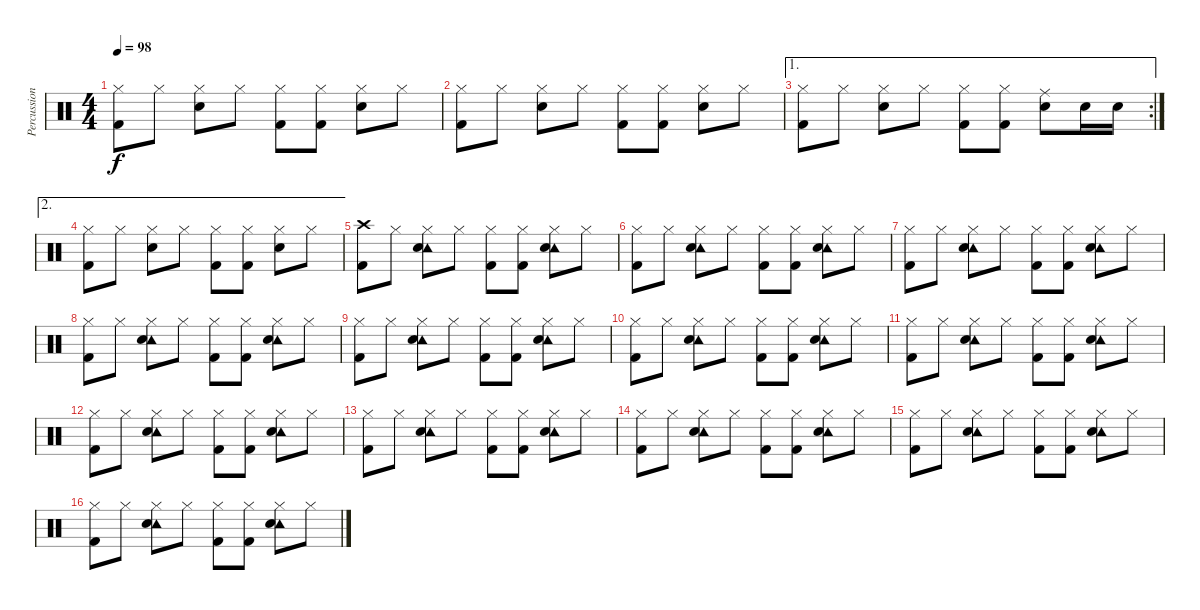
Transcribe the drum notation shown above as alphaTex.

\track ("Percussion" "Percussion") {instrument percussion}
\staff {score}
\articulation defaults
\ts (4 4)
\tempo 98
\clef neutral
\ks c
("Hi-Hat (closed)" "Kick (hit) 2").8{dy f} "Hi-Hat (closed)".8 ("Hi-Hat (closed)" "Snare (hit) 2").8 "Hi-Hat (closed)".8 ("Hi-Hat (closed)" "Kick (hit) 2").8 ("Hi-Hat (closed)" "Kick (hit) 2").8 ("Hi-Hat (closed)" "Snare (hit) 2").8 "Hi-Hat (closed)".8 |
("Hi-Hat (closed)" "Kick (hit) 2").8 "Hi-Hat (closed)".8 ("Hi-Hat (closed)" "Snare (hit) 2").8 "Hi-Hat (closed)".8 ("Hi-Hat (closed)" "Kick (hit) 2").8 ("Hi-Hat (closed)" "Kick (hit) 2").8 ("Hi-Hat (closed)" "Snare (hit) 2").8 "Hi-Hat (closed)".8 |
\ae 1
\rc 2
("Hi-Hat (closed)" "Kick (hit) 2").8 "Hi-Hat (closed)".8 ("Hi-Hat (closed)" "Snare (hit) 2").8 "Hi-Hat (closed)".8 ("Hi-Hat (closed)" "Kick (hit) 2").8 ("Hi-Hat (closed)" "Kick (hit) 2").8 ("Ride (middle)" "Snare (hit) 2").8 "Snare (hit) 2".16 "Snare (hit) 2".16 |
\ae 2
("Hi-Hat (closed)" "Kick (hit) 2").8 "Hi-Hat (closed)".8 ("Hi-Hat (closed)" "Snare (hit) 2").8 "Hi-Hat (closed)".8 ("Hi-Hat (closed)" "Kick (hit) 2").8 ("Hi-Hat (closed)" "Kick (hit) 2").8 ("Hi-Hat (closed)" "Snare (hit) 2").8 "Hi-Hat (closed)".8 |
("Crash high (hit)" "Kick (hit) 2").8 "Hi-Hat (closed)".8 ("Tambourine (hit)" "Hi-Hat (closed)" "Snare (hit) 2").8 "Hi-Hat (closed)".8 ("Hi-Hat (closed)" "Kick (hit) 2").8 ("Hi-Hat (closed)" "Kick (hit) 2").8 ("Tambourine (hit)" "Hi-Hat (closed)" "Snare (hit) 2").8 "Hi-Hat (closed)".8 |
("Hi-Hat (closed)" "Kick (hit) 2").8 "Hi-Hat (closed)".8 ("Tambourine (hit)" "Hi-Hat (closed)" "Snare (hit) 2").8 "Hi-Hat (closed)".8 ("Hi-Hat (closed)" "Kick (hit) 2").8 ("Hi-Hat (closed)" "Kick (hit) 2").8 ("Tambourine (hit)" "Hi-Hat (closed)" "Snare (hit) 2").8 "Hi-Hat (closed)".8 |
("Hi-Hat (closed)" "Kick (hit) 2").8 "Hi-Hat (closed)".8 ("Tambourine (hit)" "Hi-Hat (closed)" "Snare (hit) 2").8 "Hi-Hat (closed)".8 ("Hi-Hat (closed)" "Kick (hit) 2").8 ("Hi-Hat (closed)" "Kick (hit) 2").8 ("Tambourine (hit)" "Hi-Hat (closed)" "Snare (hit) 2").8 "Hi-Hat (closed)".8 |
("Hi-Hat (closed)" "Kick (hit) 2").8 "Hi-Hat (closed)".8 ("Tambourine (hit)" "Hi-Hat (closed)" "Snare (hit) 2").8 "Hi-Hat (closed)".8 ("Hi-Hat (closed)" "Kick (hit) 2").8 ("Hi-Hat (closed)" "Kick (hit) 2").8 ("Tambourine (hit)" "Hi-Hat (closed)" "Snare (hit) 2").8 "Hi-Hat (closed)".8 |
("Hi-Hat (closed)" "Kick (hit) 2").8 "Hi-Hat (closed)".8 ("Tambourine (hit)" "Hi-Hat (closed)" "Snare (hit) 2").8 "Hi-Hat (closed)".8 ("Hi-Hat (closed)" "Kick (hit) 2").8 ("Hi-Hat (closed)" "Kick (hit) 2").8 ("Tambourine (hit)" "Hi-Hat (closed)" "Snare (hit) 2").8 "Hi-Hat (closed)".8 |
("Hi-Hat (closed)" "Kick (hit) 2").8 "Hi-Hat (closed)".8 ("Tambourine (hit)" "Hi-Hat (closed)" "Snare (hit) 2").8 "Hi-Hat (closed)".8 ("Hi-Hat (closed)" "Kick (hit) 2").8 ("Hi-Hat (closed)" "Kick (hit) 2").8 ("Tambourine (hit)" "Hi-Hat (closed)" "Snare (hit) 2").8 "Hi-Hat (closed)".8 |
("Hi-Hat (closed)" "Kick (hit) 2").8 "Hi-Hat (closed)".8 ("Tambourine (hit)" "Hi-Hat (closed)" "Snare (hit) 2").8 "Hi-Hat (closed)".8 ("Hi-Hat (closed)" "Kick (hit) 2").8 ("Hi-Hat (closed)" "Kick (hit) 2").8 ("Tambourine (hit)" "Hi-Hat (closed)" "Snare (hit) 2").8 "Hi-Hat (closed)".8 |
("Hi-Hat (closed)" "Kick (hit) 2").8 "Hi-Hat (closed)".8 ("Tambourine (hit)" "Hi-Hat (closed)" "Snare (hit) 2").8 "Hi-Hat (closed)".8 ("Hi-Hat (closed)" "Kick (hit) 2").8 ("Hi-Hat (closed)" "Kick (hit) 2").8 ("Tambourine (hit)" "Hi-Hat (closed)" "Snare (hit) 2").8 "Hi-Hat (closed)".8 |
("Hi-Hat (closed)" "Kick (hit) 2").8 "Hi-Hat (closed)".8 ("Tambourine (hit)" "Hi-Hat (closed)" "Snare (hit) 2").8 "Hi-Hat (closed)".8 ("Hi-Hat (closed)" "Kick (hit) 2").8 ("Hi-Hat (closed)" "Kick (hit) 2").8 ("Tambourine (hit)" "Hi-Hat (closed)" "Snare (hit) 2").8 "Hi-Hat (closed)".8 |
("Hi-Hat (closed)" "Kick (hit) 2").8 "Hi-Hat (closed)".8 ("Tambourine (hit)" "Hi-Hat (closed)" "Snare (hit) 2").8 "Hi-Hat (closed)".8 ("Hi-Hat (closed)" "Kick (hit) 2").8 ("Hi-Hat (closed)" "Kick (hit) 2").8 ("Tambourine (hit)" "Hi-Hat (closed)" "Snare (hit) 2").8 "Hi-Hat (closed)".8 |
("Hi-Hat (closed)" "Kick (hit) 2").8 "Hi-Hat (closed)".8 ("Tambourine (hit)" "Hi-Hat (closed)" "Snare (hit) 2").8 "Hi-Hat (closed)".8 ("Hi-Hat (closed)" "Kick (hit) 2").8 ("Hi-Hat (closed)" "Kick (hit) 2").8 ("Tambourine (hit)" "Hi-Hat (closed)" "Snare (hit) 2").8 "Hi-Hat (closed)".8 |
("Hi-Hat (closed)" "Kick (hit) 2").8 "Hi-Hat (closed)".8 ("Tambourine (hit)" "Hi-Hat (closed)" "Snare (hit) 2").8 "Hi-Hat (closed)".8 ("Hi-Hat (closed)" "Kick (hit) 2").8 ("Hi-Hat (closed)" "Kick (hit) 2").8 ("Tambourine (hit)" "Hi-Hat (closed)" "Snare (hit) 2").8 "Hi-Hat (closed)".8
